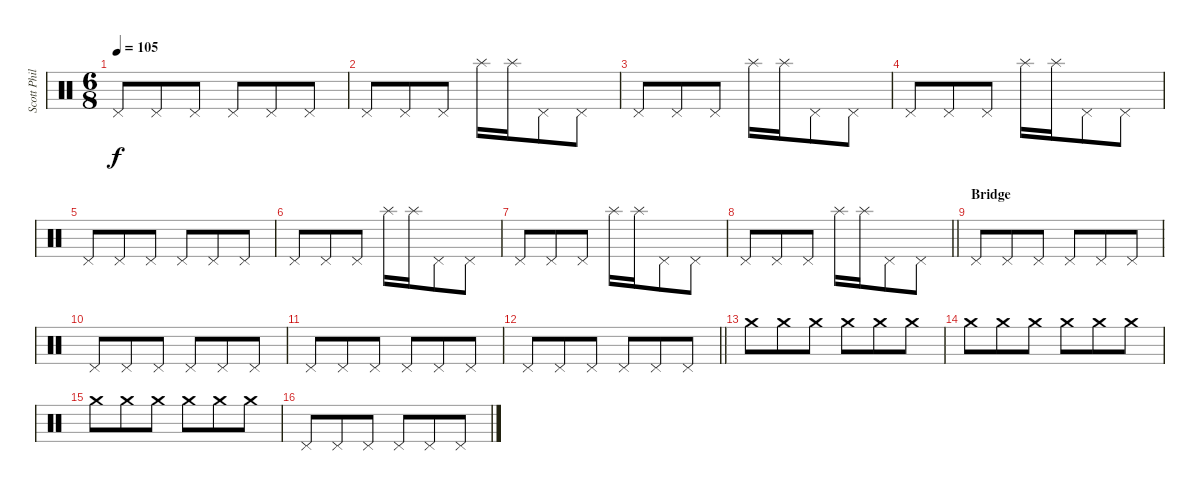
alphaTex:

\track ("Scott Phillips (Drums)" "Scott Phil") {instrument percussion}
\staff {score}
\articulation defaults
\ts (6 8)
\tempo 105
\clef neutral
\ks c "Pedal Hi-Hat (hit)".8{dy f} "Pedal Hi-Hat (hit)".8 "Pedal Hi-Hat (hit)".8 "Pedal Hi-Hat (hit)".8 "Pedal Hi-Hat (hit)".8 "Pedal Hi-Hat (hit)".8
|
"Pedal Hi-Hat (hit)".8 "Pedal Hi-Hat (hit)".8 "Pedal Hi-Hat (hit)".8 "Splash (hit)".16 "Splash (hit)".16 "Pedal Hi-Hat (hit)".8 "Pedal Hi-Hat (hit)".8 |
"Pedal Hi-Hat (hit)".8 "Pedal Hi-Hat (hit)".8 "Pedal Hi-Hat (hit)".8 "Splash (hit)".16 "Splash (hit)".16 "Pedal Hi-Hat (hit)".8 "Pedal Hi-Hat (hit)".8 |
"Pedal Hi-Hat (hit)".8 "Pedal Hi-Hat (hit)".8 "Pedal Hi-Hat (hit)".8 "Splash (hit)".16 "Splash (hit)".16 "Pedal Hi-Hat (hit)".8 "Pedal Hi-Hat (hit)".8 |
"Pedal Hi-Hat (hit)".8 "Pedal Hi-Hat (hit)".8 "Pedal Hi-Hat (hit)".8 "Pedal Hi-Hat (hit)".8 "Pedal Hi-Hat (hit)".8 "Pedal Hi-Hat (hit)".8 |
"Pedal Hi-Hat (hit)".8 "Pedal Hi-Hat (hit)".8 "Pedal Hi-Hat (hit)".8 "Splash (hit)".16 "Splash (hit)".16 "Pedal Hi-Hat (hit)".8 "Pedal Hi-Hat (hit)".8 |
"Pedal Hi-Hat (hit)".8 "Pedal Hi-Hat (hit)".8 "Pedal Hi-Hat (hit)".8 "Splash (hit)".16 "Splash (hit)".16 "Pedal Hi-Hat (hit)".8 "Pedal Hi-Hat (hit)".8 |
\barLineRight lightlight "Pedal Hi-Hat (hit)".8 "Pedal Hi-Hat (hit)".8 "Pedal Hi-Hat (hit)".8 "Splash (hit)".16 "Splash (hit)".16 "Pedal Hi-Hat (hit)".8 "Pedal Hi-Hat (hit)".8
|
\section ("" "Bridge")
"Pedal Hi-Hat (hit)".8 "Pedal Hi-Hat (hit)".8 "Pedal Hi-Hat (hit)".8 "Pedal Hi-Hat (hit)".8 "Pedal Hi-Hat (hit)".8 "Pedal Hi-Hat (hit)".8 |
"Pedal Hi-Hat (hit)".8 "Pedal Hi-Hat (hit)".8 "Pedal Hi-Hat (hit)".8 "Pedal Hi-Hat (hit)".8 "Pedal Hi-Hat (hit)".8 "Pedal Hi-Hat (hit)".8 |
"Pedal Hi-Hat (hit)".8 "Pedal Hi-Hat (hit)".8 "Pedal Hi-Hat (hit)".8 "Pedal Hi-Hat (hit)".8 "Pedal Hi-Hat (hit)".8 "Pedal Hi-Hat (hit)".8 |
\barLineRight lightlight "Pedal Hi-Hat (hit)".8 "Pedal Hi-Hat (hit)".8 "Pedal Hi-Hat (hit)".8 "Pedal Hi-Hat (hit)".8 "Pedal Hi-Hat (hit)".8 "Pedal Hi-Hat (hit)".8
|
"Crash medium (hit)".8 "Crash medium (hit)".8 "Crash medium (hit)".8 "Crash medium (hit)".8 "Crash medium (hit)".8 "Crash medium (hit)".8 |
"Crash medium (hit)".8 "Crash medium (hit)".8 "Crash medium (hit)".8 "Crash medium (hit)".8 "Crash medium (hit)".8 "Crash medium (hit)".8 |
"Crash medium (hit)".8 "Crash medium (hit)".8 "Crash medium (hit)".8 "Crash medium (hit)".8 "Crash medium (hit)".8 "Crash medium (hit)".8 |
"Pedal Hi-Hat (hit)".8 "Pedal Hi-Hat (hit)".8 "Pedal Hi-Hat (hit)".8 "Pedal Hi-Hat (hit)".8 "Pedal Hi-Hat (hit)".8 "Pedal Hi-Hat (hit)".8
